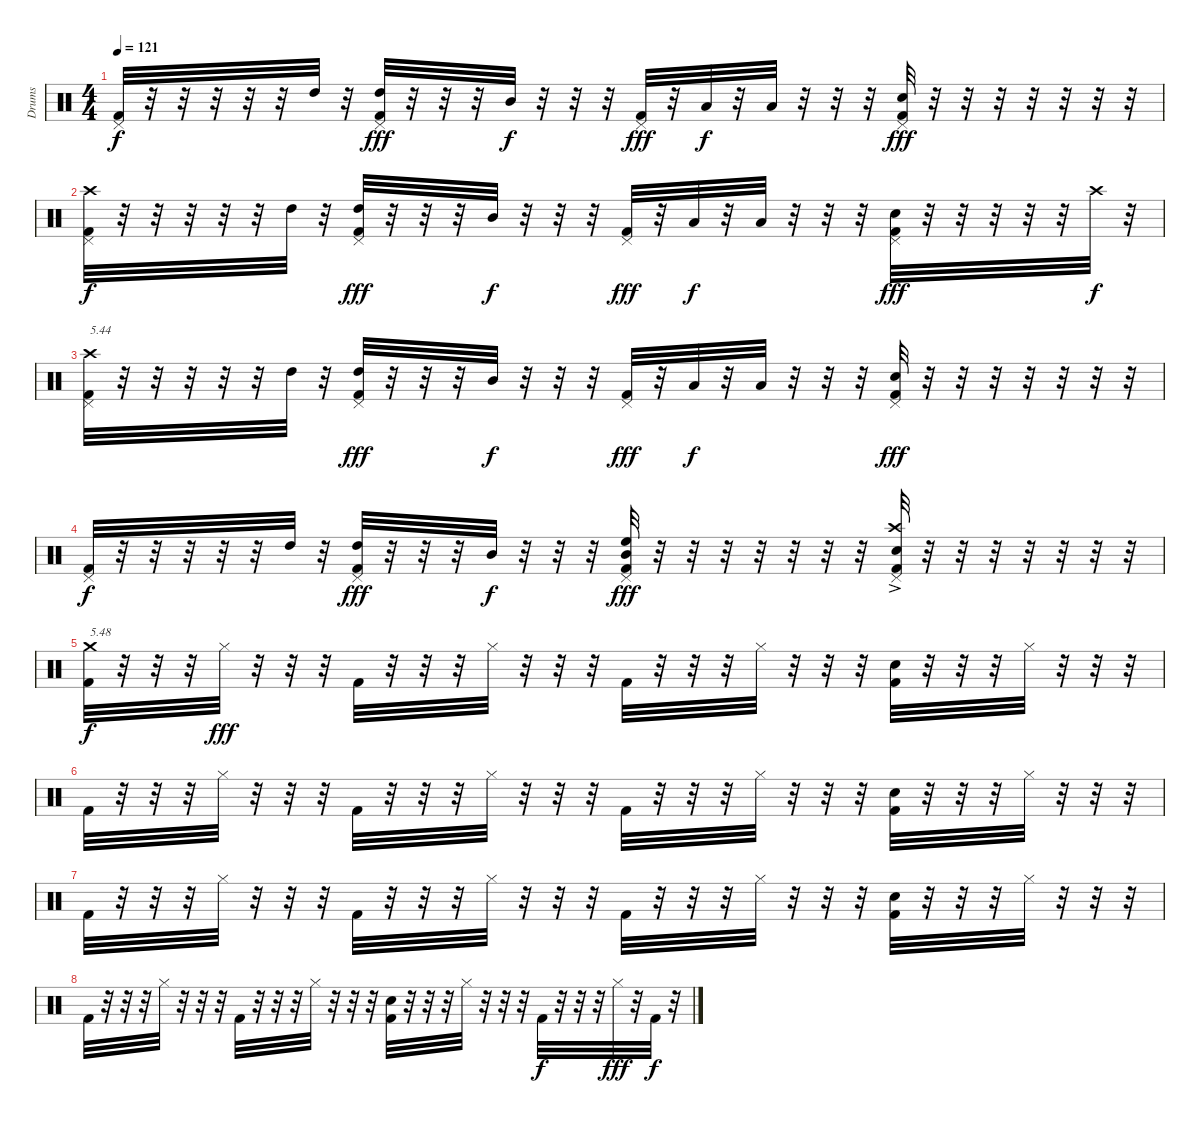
\track ("Drums" "Drums") {instrument percussion}
\staff {score}
\articulation defaults
\ts (4 4)
\tempo 121
\clef neutral
\ks c
("Pedal Hi-Hat (hit)" "Kick (hit) 2").32{dy f} r.32 r.32 r.32 r.32 r.32 "High Tom (hit)".32 r.32 ("Pedal Hi-Hat (hit)" "Kick (hit) 2" "High Tom (hit)").32{dy fff} r.32 r.32 r.32 "Mid Tom (hit)".32{dy f} r.32 r.32 r.32 ("Pedal Hi-Hat (hit)" "Kick (hit) 2").32{dy fff} r.32 "Low Tom (hit)".32{dy f} r.32 "Low Tom (hit)".32 r.32 r.32 r.32 ("Pedal Hi-Hat (hit)" "Kick (hit) 2" "Electric Snare (hit)").32{dy fff} r.32 r.32 r.32 r.32 r.32 r.32 r.32 |
("Pedal Hi-Hat (hit)" "Kick (hit) 2" "Crash high (hit)").32{dy f} r.32 r.32 r.32 r.32 r.32 "High Tom (hit)".32 r.32 ("Pedal Hi-Hat (hit)" "Kick (hit) 2" "High Tom (hit)").32{dy fff} r.32 r.32 r.32 "Mid Tom (hit)".32{dy f} r.32 r.32 r.32 ("Pedal Hi-Hat (hit)" "Kick (hit) 2").32{dy fff} r.32 "Low Tom (hit)".32{dy f} r.32 "Low Tom (hit)".32 r.32 r.32 r.32 ("Pedal Hi-Hat (hit)" "Kick (hit) 2" "Electric Snare (hit)").32{dy fff} r.32 r.32 r.32 r.32 r.32 "Crash high (hit)".32{dy f} r.32 |
("Pedal Hi-Hat (hit)" "Kick (hit) 2" "Crash high (hit)").32{txt "5.44"} r.32 r.32 r.32 r.32 r.32 "High Tom (hit)".32 r.32 ("Pedal Hi-Hat (hit)" "Kick (hit) 2" "High Tom (hit)").32{dy fff} r.32 r.32 r.32 "Mid Tom (hit)".32{dy f} r.32 r.32 r.32 ("Pedal Hi-Hat (hit)" "Kick (hit) 2").32{dy fff} r.32 "Low Tom (hit)".32{dy f} r.32 "Low Tom (hit)".32 r.32 r.32 r.32 ("Pedal Hi-Hat (hit)" "Kick (hit) 2" "Electric Snare (hit)").32{dy fff} r.32 r.32 r.32 r.32 r.32 r.32 r.32 |
("Pedal Hi-Hat (hit)" "Kick (hit) 2").32{dy f} r.32 r.32 r.32 r.32 r.32 "High Tom (hit)".32 r.32 ("Pedal Hi-Hat (hit)" "Kick (hit) 2" "High Tom (hit)").32{dy fff} r.32 r.32 r.32 "Mid Tom (hit)".32{dy f} r.32 r.32 r.32 ("Pedal Hi-Hat (hit)" "Kick (hit) 2" "Mid Tom (hit)" "High Floor Tom (hit)").32{dy fff} r.32 r.32 r.32 r.32 r.32 r.32 r.32 ("Pedal Hi-Hat (hit)" "Kick (hit) 2" "Snare (hit) 2"{ac} "Crash high (hit)").32 r.32 r.32 r.32 r.32 r.32 r.32 r.32 |
("Kick (hit) 2" "Crash medium (hit)").32{txt "5.48" dy f} r.32 r.32 r.32 "Hi-Hat (closed)".32{dy fff} r.32 r.32 r.32 "Kick (hit) 2".32 r.32 r.32 r.32 "Hi-Hat (closed)".32 r.32 r.32 r.32 "Kick (hit) 2".32 r.32 r.32 r.32 "Hi-Hat (closed)".32 r.32 r.32 r.32 ("Kick (hit) 2" "Snare (hit) 2").32 r.32 r.32 r.32 "Hi-Hat (closed)".32 r.32 r.32 r.32 |
"Kick (hit) 2".32 r.32 r.32 r.32 "Hi-Hat (closed)".32 r.32 r.32 r.32 "Kick (hit) 2".32 r.32 r.32 r.32 "Hi-Hat (closed)".32 r.32 r.32 r.32 "Kick (hit) 2".32 r.32 r.32 r.32 "Hi-Hat (closed)".32 r.32 r.32 r.32 ("Kick (hit) 2" "Snare (hit) 2").32 r.32 r.32 r.32 "Hi-Hat (closed)".32 r.32 r.32 r.32 |
"Kick (hit) 2".32 r.32 r.32 r.32 "Hi-Hat (closed)".32 r.32 r.32 r.32 "Kick (hit) 2".32 r.32 r.32 r.32 "Hi-Hat (closed)".32 r.32 r.32 r.32 "Kick (hit) 2".32 r.32 r.32 r.32 "Hi-Hat (closed)".32 r.32 r.32 r.32 ("Kick (hit) 2" "Snare (hit) 2").32 r.32 r.32 r.32 "Hi-Hat (closed)".32 r.32 r.32 r.32 |
"Kick (hit) 2".32 r.32 r.32 r.32 "Hi-Hat (closed)".32 r.32 r.32 r.32 "Kick (hit) 2".32 r.32 r.32 r.32 "Hi-Hat (closed)".32 r.32 r.32 r.32 ("Kick (hit) 2" "Snare (hit) 2").32 r.32 r.32 r.32 "Hi-Hat (closed)".32 r.32 r.32 r.32 "Kick (hit) 2".32{dy f} r.32 r.32 r.32 "Hi-Hat (closed)".32{dy fff} r.32 "Kick (hit) 2".32{dy f} r.32
